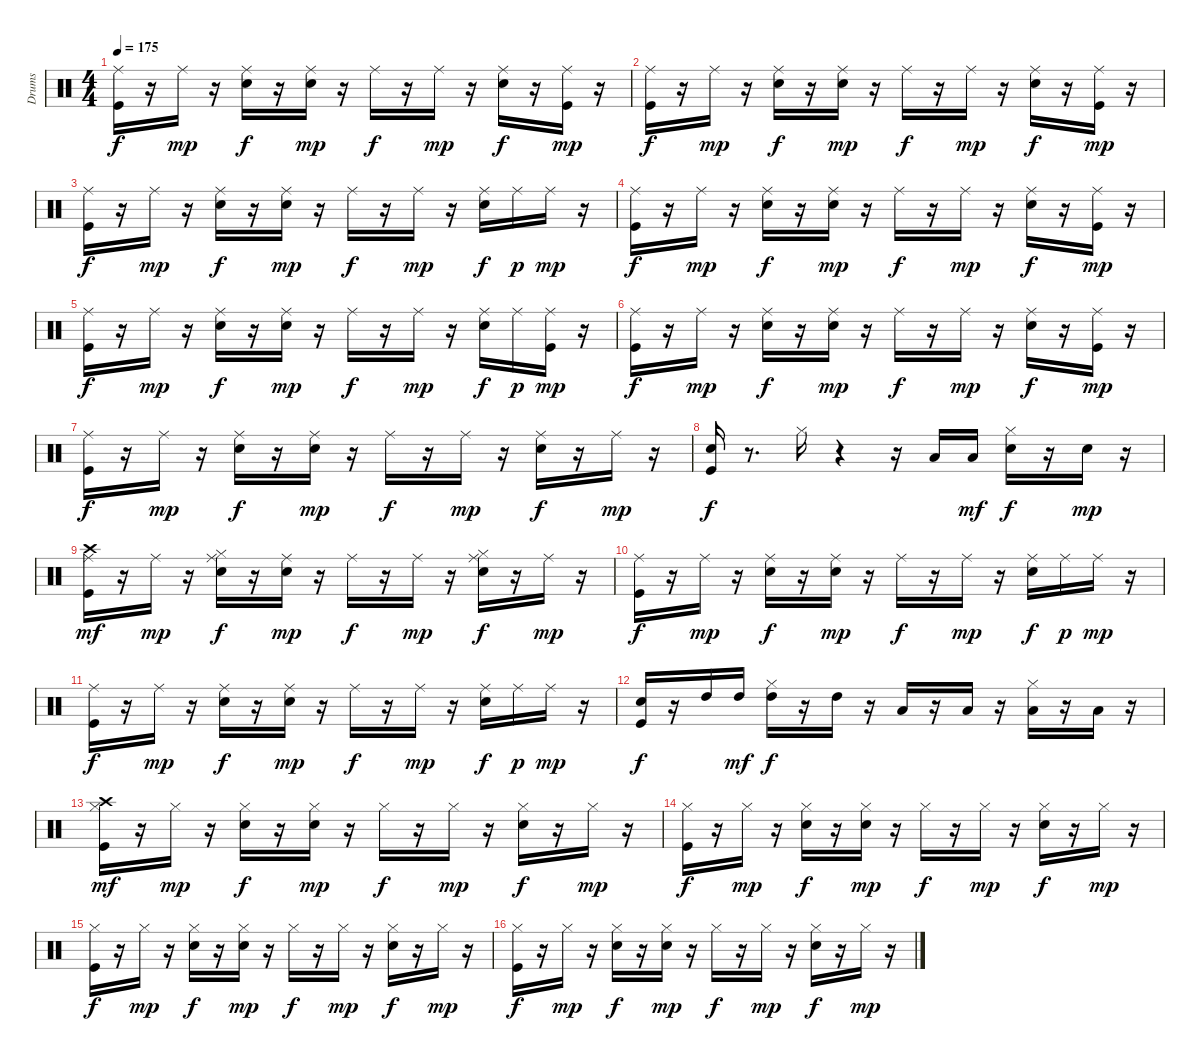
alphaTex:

\track ("Drums" "Drums") {instrument percussion}
\staff {score}
\articulation defaults
\ts (4 4)
\tempo 175
\clef neutral
\ks c
("Kick (hit)" "Ride (middle)").16{dy f} r.16 "Ride (middle)".16{dy mp} r.16 ("Snare (hit) 2" "Ride (middle)").16{dy f} r.16 ("Snare (hit) 2" "Ride (middle)").16{dy mp} r.16 "Ride (middle)".16{dy f} r.16 "Ride (middle)".16{dy mp} r.16 ("Snare (hit) 2" "Ride (middle)").16{dy f} r.16 ("Kick (hit)" "Ride (middle)").16{dy mp} r.16 |
("Kick (hit)" "Ride (middle)").16{dy f} r.16 "Ride (middle)".16{dy mp} r.16 ("Snare (hit) 2" "Ride (middle)").16{dy f} r.16 ("Snare (hit) 2" "Ride (middle)").16{dy mp} r.16 "Ride (middle)".16{dy f} r.16 "Ride (middle)".16{dy mp} r.16 ("Snare (hit) 2" "Ride (middle)").16{dy f} r.16 ("Kick (hit)" "Ride (middle)").16{dy mp} r.16 |
("Kick (hit)" "Ride (middle)").16{dy f} r.16 "Ride (middle)".16{dy mp} r.16 ("Snare (hit) 2" "Ride (middle)").16{dy f} r.16 ("Snare (hit) 2" "Ride (middle)").16{dy mp} r.16 "Ride (middle)".16{dy f} r.16 "Ride (middle)".16{dy mp} r.16 ("Snare (hit) 2" "Ride (middle)").16{dy f} "Ride (middle)".16{dy p} "Ride (middle)".16{dy mp} r.16 |
("Kick (hit)" "Ride (middle)").16{dy f} r.16 "Ride (middle)".16{dy mp} r.16 ("Snare (hit) 2" "Ride (middle)").16{dy f} r.16 ("Snare (hit) 2" "Ride (middle)").16{dy mp} r.16 "Ride (middle)".16{dy f} r.16 "Ride (middle)".16{dy mp} r.16 ("Snare (hit) 2" "Ride (middle)").16{dy f} r.16 ("Kick (hit)" "Ride (middle)").16{dy mp} r.16 |
("Kick (hit)" "Ride (middle)").16{dy f} r.16 "Ride (middle)".16{dy mp} r.16 ("Snare (hit) 2" "Ride (middle)").16{dy f} r.16 ("Snare (hit) 2" "Ride (middle)").16{dy mp} r.16 "Ride (middle)".16{dy f} r.16 "Ride (middle)".16{dy mp} r.16 ("Snare (hit) 2" "Ride (middle)").16{dy f} "Ride (middle)".16{dy p} ("Kick (hit)" "Ride (middle)").16{dy mp} r.16 |
("Kick (hit)" "Ride (middle)").16{dy f} r.16 "Ride (middle)".16{dy mp} r.16 ("Snare (hit) 2" "Ride (middle)").16{dy f} r.16 ("Snare (hit) 2" "Ride (middle)").16{dy mp} r.16 "Ride (middle)".16{dy f} r.16 "Ride (middle)".16{dy mp} r.16 ("Snare (hit) 2" "Ride (middle)").16{dy f} r.16 ("Kick (hit)" "Ride (middle)").16{dy mp} r.16 |
("Kick (hit)" "Ride (middle)").16{dy f} r.16 "Ride (middle)".16{dy mp} r.16 ("Snare (hit) 2" "Ride (middle)").16{dy f} r.16 ("Snare (hit) 2" "Ride (middle)").16{dy mp} r.16 "Ride (middle)".16{dy f} r.16 "Ride (middle)".16{dy mp} r.16 ("Snare (hit) 2" "Ride (middle)").16{dy f} r.16 "Ride (middle)".16{dy mp} r.16 |
("Kick (hit)" "Snare (hit) 2").16{dy f} r.8{d} "Hi-Hat (closed)".16 r.4 r.16 "Low Tom (hit)".16 "Low Tom (hit)".16{dy mf} ("Snare (hit) 2" "Hi-Hat (closed)").16{dy f} r.16 "Snare (hit) 2".16{dy mp} r.16 |
("Kick (hit)" "Ride (middle)" "Crash high (hit)").16{dy mf} r.16 "Ride (middle)".16{dy mp} r.16 ("Snare (hit) 2" "Hi-Hat (closed)" "Ride (middle)").16{dy f} r.16 ("Snare (hit) 2" "Ride (middle)").16{dy mp} r.16 "Ride (middle)".16{dy f} r.16 "Ride (middle)".16{dy mp} r.16 ("Snare (hit) 2" "Hi-Hat (closed)" "Ride (middle)").16{dy f} r.16 "Ride (middle)".16{dy mp} r.16 |
("Kick (hit)" "Ride (middle)").16{dy f} r.16 "Ride (middle)".16{dy mp} r.16 ("Snare (hit) 2" "Ride (middle)").16{dy f} r.16 ("Snare (hit) 2" "Ride (middle)").16{dy mp} r.16 "Ride (middle)".16{dy f} r.16 "Ride (middle)".16{dy mp} r.16 ("Snare (hit) 2" "Ride (middle)").16{dy f} "Ride (middle)".16{dy p} "Ride (middle)".16{dy mp} r.16 |
("Kick (hit)" "Ride (middle)").16{dy f} r.16 "Ride (middle)".16{dy mp} r.16 ("Snare (hit) 2" "Ride (middle)").16{dy f} r.16 ("Snare (hit) 2" "Ride (middle)").16{dy mp} r.16 "Ride (middle)".16{dy f} r.16 "Ride (middle)".16{dy mp} r.16 ("Snare (hit) 2" "Ride (middle)").16{dy f} "Ride (middle)".16{dy p} "Ride (middle)".16{dy mp} r.16 |
("Kick (hit)" "Snare (hit) 2").16{dy f} r.16 "High Tom (hit)".16 "High Tom (hit)".16{dy mf} ("Hi-Hat (closed)" "High Tom (hit)").16{dy f} r.16 "High Tom (hit)".16 r.16 "Low Tom (hit)".16 r.16 "Low Tom (hit)".16 r.16 ("Hi-Hat (closed)" "Low Floor Tom (hit)").16 r.16 "Low Floor Tom (hit)".16 r.16 |
("Kick (hit)" "Hi-Hat (closed)" "Crash high (hit)").16{dy mf} r.16 "Hi-Hat (closed)".16{dy mp} r.16 ("Snare (hit) 2" "Hi-Hat (closed)").16{dy f} r.16 ("Snare (hit) 2" "Hi-Hat (closed)").16{dy mp} r.16 "Hi-Hat (closed)".16{dy f} r.16 "Hi-Hat (closed)".16{dy mp} r.16 ("Snare (hit) 2" "Hi-Hat (closed)").16{dy f} r.16 "Hi-Hat (closed)".16{dy mp} r.16 |
("Kick (hit)" "Hi-Hat (closed)").16{dy f} r.16 "Hi-Hat (closed)".16{dy mp} r.16 ("Snare (hit) 2" "Hi-Hat (closed)").16{dy f} r.16 ("Snare (hit) 2" "Hi-Hat (closed)").16{dy mp} r.16 "Hi-Hat (closed)".16{dy f} r.16 "Hi-Hat (closed)".16{dy mp} r.16 ("Snare (hit) 2" "Hi-Hat (closed)").16{dy f} r.16 "Hi-Hat (closed)".16{dy mp} r.16 |
("Kick (hit)" "Hi-Hat (closed)").16{dy f} r.16 "Hi-Hat (closed)".16{dy mp} r.16 ("Snare (hit) 2" "Hi-Hat (closed)").16{dy f} r.16 ("Snare (hit) 2" "Hi-Hat (closed)").16{dy mp} r.16 "Hi-Hat (closed)".16{dy f} r.16 "Hi-Hat (closed)".16{dy mp} r.16 ("Snare (hit) 2" "Hi-Hat (closed)").16{dy f} r.16 "Hi-Hat (closed)".16{dy mp} r.16 |
("Kick (hit)" "Hi-Hat (closed)").16{dy f} r.16 "Hi-Hat (closed)".16{dy mp} r.16 ("Snare (hit) 2" "Hi-Hat (closed)").16{dy f} r.16 ("Snare (hit) 2" "Hi-Hat (closed)").16{dy mp} r.16 "Hi-Hat (closed)".16{dy f} r.16 "Hi-Hat (closed)".16{dy mp} r.16 ("Snare (hit) 2" "Hi-Hat (closed)").16{dy f} r.16 "Hi-Hat (closed)".16{dy mp} r.16
